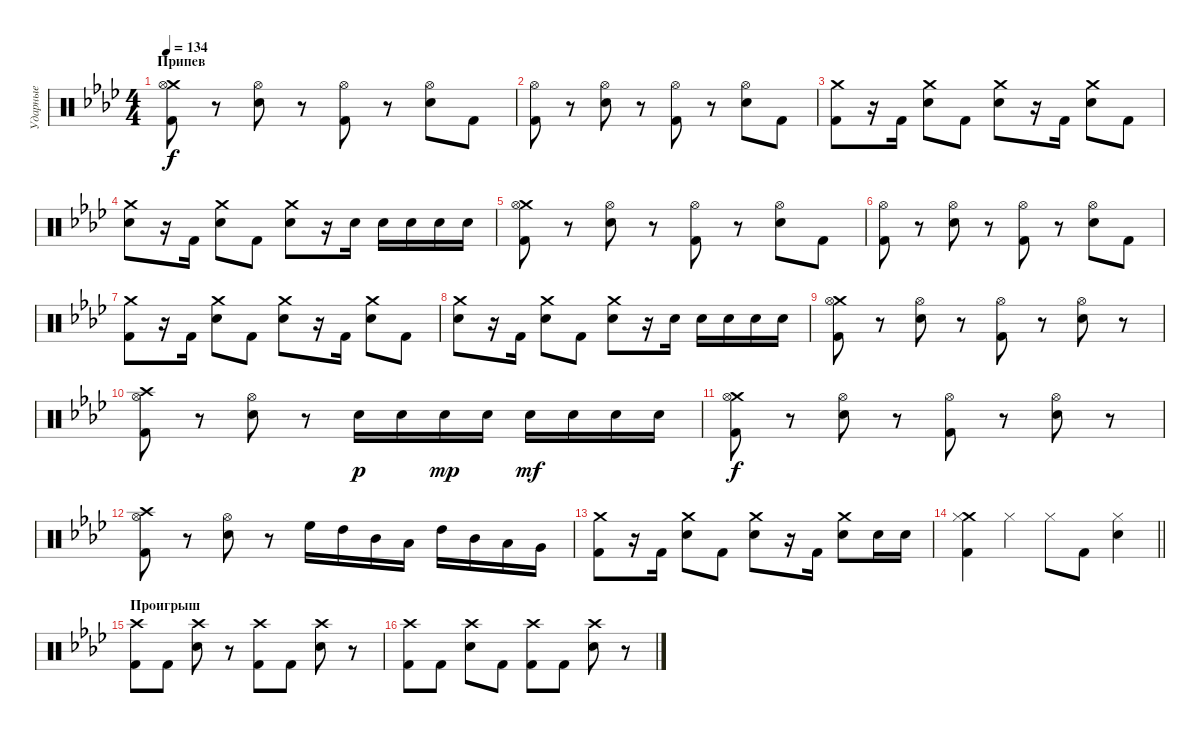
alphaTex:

\track ("Ударные" "Ударные") {instrument percussion}
\staff {score}
\articulation defaults
\ts (4 4)
\section ("" "Припев")
\tempo 134
\clef neutral
\ks fminor
("Crash medium (hit)" "Hi-Hat (open)" "Kick (hit) 2").8{dy f} r.8 ("Hi-Hat (open)" "Electric Snare (hit)").8 r.8 ("Hi-Hat (open)" "Kick (hit) 2").8 r.8 ("Hi-Hat (open)" "Electric Snare (hit)").8 "Kick (hit) 2".8 |
("Hi-Hat (open)" "Kick (hit) 2").8 r.8 ("Hi-Hat (open)" "Electric Snare (hit)").8 r.8 ("Hi-Hat (open)" "Kick (hit) 2").8 r.8 ("Hi-Hat (open)" "Electric Snare (hit)").8 "Kick (hit) 2".8 |
("Crash medium (hit)" "Kick (hit) 2").8 r.16 "Kick (hit) 2".16 ("Crash medium (hit)" "Electric Snare (hit)").8 "Kick (hit) 2".8 ("Crash medium (hit)" "Electric Snare (hit)").8 r.16 "Kick (hit) 2".16 ("Crash medium (hit)" "Electric Snare (hit)").8 "Kick (hit) 2".8 |
("Crash medium (hit)" "Electric Snare (hit)").8 r.16 "Kick (hit) 2".16 ("Crash medium (hit)" "Electric Snare (hit)").8 "Kick (hit) 2".8 ("Crash medium (hit)" "Electric Snare (hit)").8 r.16 "Electric Snare (hit)".16 "Electric Snare (hit)".16 "Electric Snare (hit)".16 "Electric Snare (hit)".16 "Electric Snare (hit)".16 |
("Crash medium (hit)" "Hi-Hat (open)" "Kick (hit) 2").8 r.8 ("Hi-Hat (open)" "Electric Snare (hit)").8 r.8 ("Hi-Hat (open)" "Kick (hit) 2").8 r.8 ("Hi-Hat (open)" "Electric Snare (hit)").8 "Kick (hit) 2".8 |
("Hi-Hat (open)" "Kick (hit) 2").8 r.8 ("Hi-Hat (open)" "Electric Snare (hit)").8 r.8 ("Hi-Hat (open)" "Kick (hit) 2").8 r.8 ("Hi-Hat (open)" "Electric Snare (hit)").8 "Kick (hit) 2".8 |
("Crash medium (hit)" "Kick (hit) 2").8 r.16 "Kick (hit) 2".16 ("Crash medium (hit)" "Electric Snare (hit)").8 "Kick (hit) 2".8 ("Crash medium (hit)" "Electric Snare (hit)").8 r.16 "Kick (hit) 2".16 ("Crash medium (hit)" "Electric Snare (hit)").8 "Kick (hit) 2".8 |
("Crash medium (hit)" "Electric Snare (hit)").8 r.16 "Kick (hit) 2".16 ("Crash medium (hit)" "Electric Snare (hit)").8 "Kick (hit) 2".8 ("Crash medium (hit)" "Electric Snare (hit)").8 r.16 "Electric Snare (hit)".16 "Electric Snare (hit)".16 "Electric Snare (hit)".16 "Electric Snare (hit)".16 "Electric Snare (hit)".16 |
("Crash medium (hit)" "Hi-Hat (open)" "Kick (hit) 2").8 r.8 ("Hi-Hat (open)" "Electric Snare (hit)").8 r.8 ("Hi-Hat (open)" "Kick (hit) 2").8 r.8 ("Hi-Hat (open)" "Electric Snare (hit)").8 r.8 |
("Crash high (hit)" "Hi-Hat (open)" "Kick (hit) 2").8 r.8 ("Hi-Hat (open)" "Electric Snare (hit)").8 r.8 "Electric Snare (hit)".16{dy p} "Electric Snare (hit)".16 "Electric Snare (hit)".16{dy mp} "Electric Snare (hit)".16 "Electric Snare (hit)".16{dy mf} "Electric Snare (hit)".16 "Electric Snare (hit)".16 "Electric Snare (hit)".16 |
("Crash medium (hit)" "Hi-Hat (open)" "Kick (hit) 2").8{dy f} r.8 ("Hi-Hat (open)" "Electric Snare (hit)").8 r.8 ("Hi-Hat (open)" "Kick (hit) 2").8 r.8 ("Hi-Hat (open)" "Electric Snare (hit)").8 r.8 |
("Crash high (hit)" "Hi-Hat (open)" "Kick (hit) 2").8 r.8 ("Hi-Hat (open)" "Electric Snare (hit)").8 r.8 "High Floor Tom (hit)".16 "High Tom (hit)".16 "Mid Tom (hit)".16 "Low Tom (hit)".16 "High Tom (hit)".16 "Mid Tom (hit)".16 "Low Tom (hit)".16 "Very Low Tom (hit)".16 |
("Crash medium (hit)" "Kick (hit) 2").8 r.16 "Kick (hit) 2".16 ("Crash medium (hit)" "Electric Snare (hit)").8 "Kick (hit) 2".8 ("Crash medium (hit)" "Electric Snare (hit)").8 r.16 "Kick (hit) 2".16 ("Crash medium (hit)" "Electric Snare (hit)").8 "Electric Snare (hit)".16 "Electric Snare (hit)".16 |
\barLineRight lightlight
("Crash medium (hit)" "Kick (hit) 2" "Hi-Hat (closed)").4 "Hi-Hat (closed)".4 "Hi-Hat (closed)".8 "Kick (hit) 2".8 ("Hi-Hat (closed)" "Electric Snare (hit)").4 |
\section ("" "Проигрыш")
("Crash high (hit)" "Kick (hit) 2").8 "Kick (hit) 2".8 ("Crash high (hit)" "Electric Snare (hit)").8 r.8 ("Crash high (hit)" "Kick (hit) 2").8 "Kick (hit) 2".8 ("Crash high (hit)" "Electric Snare (hit)").8 r.8 |
("Crash high (hit)" "Kick (hit) 2").8 "Kick (hit) 2".8 ("Crash high (hit)" "Electric Snare (hit)").8 "Kick (hit) 2".8 ("Crash high (hit)" "Kick (hit) 2").8 "Kick (hit) 2".8 ("Crash high (hit)" "Electric Snare (hit)").8 r.8
